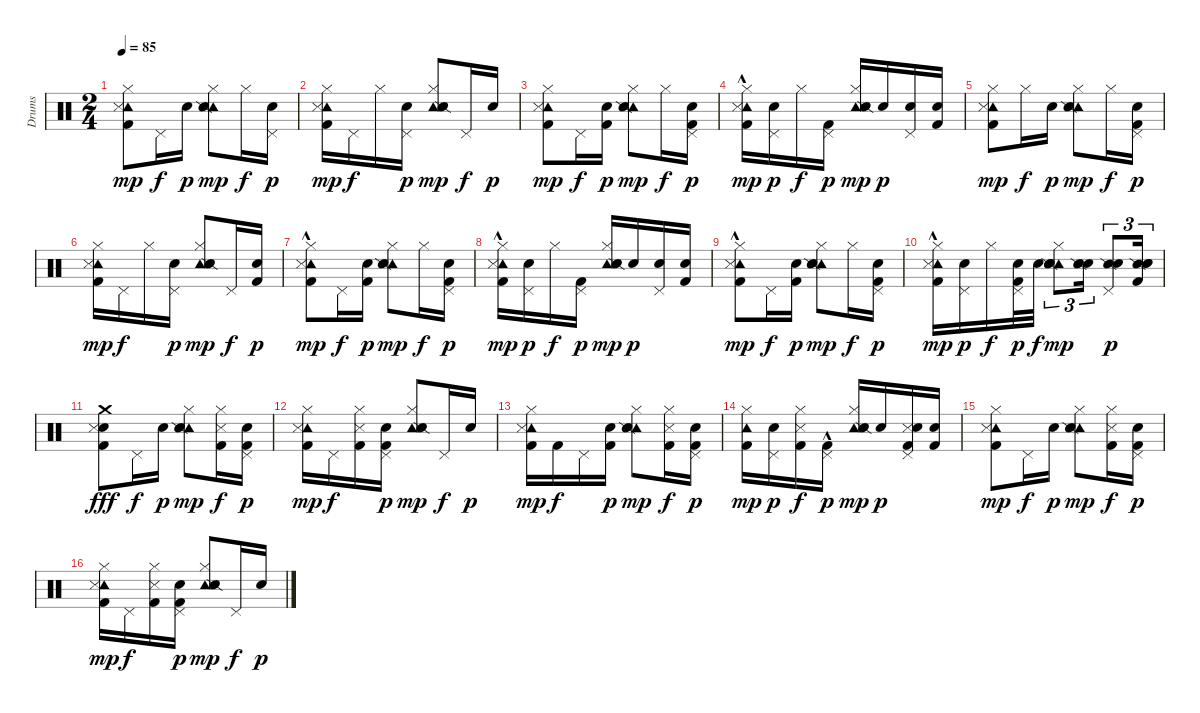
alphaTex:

\track ("Drums" "Drums") {instrument percussion}
\staff {score}
\articulation defaults
\ts (2 4)
\tempo 85
\clef neutral
\ks c
("Tambourine (hit)" "Metronome (hit)" "Kick (hit) 2" "Hi-Hat (closed)").8{dy mp} "Pedal Hi-Hat (hit)".16{dy f} "Electric Snare (hit)".16{dy p} ("Tambourine (hit)" "Snare (hit) 2" "Hi-Hat (closed)" "Snare (side stick) 2").8{dy mp} "Hi-Hat (closed)".16{dy f} ("Electric Snare (hit)" "Pedal Hi-Hat (hit)").16{dy p} |
("Tambourine (hit)" "Metronome (hit)" "Kick (hit) 2" "Hi-Hat (closed)").16{dy mp} "Pedal Hi-Hat (hit)".16{dy f} "Hi-Hat (closed)".16 ("Electric Snare (hit)" "Pedal Hi-Hat (hit)").16{dy p} ("Tambourine (hit)" "Snare (side stick) 2" "Snare (hit) 2" "Hi-Hat (closed)").8{dy mp} "Pedal Hi-Hat (hit)".16{dy f} "Electric Snare (hit)".16{dy p} |
("Tambourine (hit)" "Metronome (hit)" "Kick (hit) 2" "Hi-Hat (closed)").8{dy mp} "Pedal Hi-Hat (hit)".16{dy f} ("Electric Snare (hit)" "Kick (hit) 2").16{dy p} ("Tambourine (hit)" "Snare (hit) 2" "Snare (side stick) 2" "Hi-Hat (closed)").8{dy mp} "Hi-Hat (closed)".16{dy f} ("Electric Snare (hit)" "Kick (hit) 2" "Pedal Hi-Hat (hit)").16{dy p} |
("Tambourine (hit)" "Metronome (hit)" "Kick (hit) 2"{hac} "Hi-Hat (closed)").16{dy mp} ("Snare (hit) 2" "Pedal Hi-Hat (hit)").16{dy p} "Hi-Hat (closed)".16{dy f} ("Kick (hit) 2" "Pedal Hi-Hat (hit)").16{dy p} ("Tambourine (hit)" "Snare (hit) 2" "Snare (side stick) 2" "Hi-Hat (closed)").16{dy mp} "Electric Snare (hit)".16{dy p} ("Electric Snare (hit)" "Pedal Hi-Hat (hit)").16 ("Kick (hit) 2" "Electric Snare (hit)").16 |
("Tambourine (hit)" "Metronome (hit)" "Kick (hit) 2" "Hi-Hat (closed)").8{dy mp} "Hi-Hat (closed)".16{dy f} "Electric Snare (hit)".16{dy p} ("Tambourine (hit)" "Snare (hit) 2" "Hi-Hat (closed)" "Snare (side stick) 2").8{dy mp} "Hi-Hat (closed)".16{dy f} ("Kick (hit) 2" "Electric Snare (hit)" "Pedal Hi-Hat (hit)").16{dy p} |
("Tambourine (hit)" "Metronome (hit)" "Kick (hit) 2" "Hi-Hat (closed)").16{dy mp} "Pedal Hi-Hat (hit)".16{dy f} "Hi-Hat (closed)".16 ("Electric Snare (hit)" "Pedal Hi-Hat (hit)").16{dy p} ("Tambourine (hit)" "Snare (side stick) 2" "Snare (hit) 2" "Hi-Hat (closed)").8{dy mp} "Pedal Hi-Hat (hit)".16{dy f} ("Kick (hit) 2" "Electric Snare (hit)").16{dy p} |
("Tambourine (hit)" "Metronome (hit)" "Kick (hit) 2"{hac} "Hi-Hat (closed)").8{dy mp} "Pedal Hi-Hat (hit)".16{dy f} ("Electric Snare (hit)" "Kick (hit) 2").16{dy p} ("Tambourine (hit)" "Snare (hit) 2" "Snare (side stick) 2" "Hi-Hat (closed)").8{dy mp} "Hi-Hat (closed)".16{dy f} ("Electric Snare (hit)" "Kick (hit) 2" "Pedal Hi-Hat (hit)").16{dy p} |
("Tambourine (hit)" "Metronome (hit)" "Kick (hit) 2"{hac} "Hi-Hat (closed)").16{dy mp} ("Snare (hit) 2" "Pedal Hi-Hat (hit)").16{dy p} "Hi-Hat (closed)".16{dy f} ("Kick (hit) 2" "Pedal Hi-Hat (hit)").16{dy p} ("Tambourine (hit)" "Snare (hit) 2" "Snare (side stick) 2" "Hi-Hat (closed)").16{dy mp} "Electric Snare (hit)".16{dy p} ("Electric Snare (hit)" "Pedal Hi-Hat (hit)").16 ("Kick (hit) 2" "Electric Snare (hit)").16 |
("Tambourine (hit)" "Metronome (hit)" "Kick (hit) 2"{hac} "Hi-Hat (closed)").8{dy mp} "Pedal Hi-Hat (hit)".16{dy f} ("Kick (hit) 2" "Electric Snare (hit)").16{dy p} ("Tambourine (hit)" "Snare (hit) 2" "Snare (side stick) 2" "Hi-Hat (closed)").8{dy mp} "Hi-Hat (closed)".16{dy f} ("Electric Snare (hit)" "Kick (hit) 2" "Pedal Hi-Hat (hit)").16{dy p} |
("Tambourine (hit)" "Metronome (hit)" "Kick (hit) 2"{hac} "Hi-Hat (closed)").16{dy mp} ("Snare (hit) 2" "Pedal Hi-Hat (hit)").16{dy p} "Hi-Hat (closed)".16{dy f} ("Snare (hit) 2" "Kick (hit) 2" "Pedal Hi-Hat (hit)").32{dy p} "Electric Snare (hit)".32{dy f} ("Tambourine (hit)" "Snare (hit) 2" "Snare (side stick) 2" "Hi-Hat (closed)" "Electric Snare (hit)").8{tu (3 2) dy mp} ("Snare (hit) 2" "Electric Snare (hit)" "Snare (side stick) 2").16{tu (3 2)} ("Snare (side stick) 2" "Electric Snare (hit)" "Pedal Hi-Hat (hit)").8{tu (3 2) dy p} ("Snare (side stick) 2" "Snare (hit) 2" "Kick (hit) 2" "Electric Snare (hit)").16{tu (3 2)} |
("Snare (hit)" "Crash medium (hit)" "Metronome (hit)" "Kick (hit) 2").8{dy fff} "Pedal Hi-Hat (hit)".16{dy f} "Electric Snare (hit)".16{dy p} ("Tambourine (hit)" "Snare (hit) 2" "Hi-Hat (closed)" "Snare (side stick) 2").8{dy mp} ("Metronome (hit)" "Kick (hit) 2" "Hi-Hat (closed)").16{dy f} ("Kick (hit) 2" "Electric Snare (hit)" "Pedal Hi-Hat (hit)").16{dy p} |
("Tambourine (hit)" "Metronome (hit)" "Kick (hit) 2" "Hi-Hat (closed)").16{dy mp} "Pedal Hi-Hat (hit)".16{dy f} ("Metronome (hit)" "Kick (hit) 2" "Hi-Hat (closed)").16 ("Kick (hit) 2" "Electric Snare (hit)" "Pedal Hi-Hat (hit)").16{dy p} ("Tambourine (hit)" "Snare (side stick) 2" "Snare (hit) 2" "Hi-Hat (closed)").8{dy mp} "Pedal Hi-Hat (hit)".16{dy f} "Electric Snare (hit)".16{dy p} |
("Tambourine (hit)" "Metronome (hit)" "Kick (hit) 2" "Hi-Hat (closed)").16{dy mp} "Kick (hit) 2".16{dy f} "Pedal Hi-Hat (hit)".16 ("Electric Snare (hit)" "Kick (hit) 2").16{dy p} ("Tambourine (hit)" "Snare (hit) 2" "Snare (side stick) 2" "Hi-Hat (closed)").8{dy mp} ("Metronome (hit)" "Kick (hit) 2" "Hi-Hat (closed)").16{dy f} ("Kick (hit) 2" "Electric Snare (hit)" "Pedal Hi-Hat (hit)").16{dy p} |
("Kick (hit) 2" "Tambourine (hit)" "Hi-Hat (closed)").16{dy mp} ("Snare (hit) 2" "Pedal Hi-Hat (hit)").16{dy p} ("Metronome (hit)" "Kick (hit) 2" "Hi-Hat (closed)").16{dy f} ("Kick (hit) 2"{hac} "Pedal Hi-Hat (hit)").16{dy p} ("Tambourine (hit)" "Snare (hit) 2" "Snare (side stick) 2" "Hi-Hat (closed)").16{dy mp} "Electric Snare (hit)".16{dy p} ("Metronome (hit)" "Kick (hit) 2" "Electric Snare (hit)" "Pedal Hi-Hat (hit)").16 ("Kick (hit) 2" "Electric Snare (hit)").16 |
("Tambourine (hit)" "Metronome (hit)" "Kick (hit) 2" "Hi-Hat (closed)").8{dy mp} "Pedal Hi-Hat (hit)".16{dy f} "Electric Snare (hit)".16{dy p} ("Tambourine (hit)" "Snare (hit) 2" "Hi-Hat (closed)" "Snare (side stick) 2").8{dy mp} ("Hi-Hat (closed)" "Metronome (hit)" "Kick (hit) 2").16{dy f} ("Electric Snare (hit)" "Pedal Hi-Hat (hit)" "Kick (hit) 2").16{dy p} |
("Tambourine (hit)" "Metronome (hit)" "Kick (hit) 2" "Hi-Hat (closed)").16{dy mp} "Pedal Hi-Hat (hit)".16{dy f} ("Hi-Hat (closed)" "Metronome (hit)" "Kick (hit) 2").16 ("Electric Snare (hit)" "Pedal Hi-Hat (hit)" "Kick (hit) 2").16{dy p} ("Tambourine (hit)" "Snare (side stick) 2" "Snare (hit) 2" "Hi-Hat (closed)").8{dy mp} "Pedal Hi-Hat (hit)".16{dy f} "Electric Snare (hit)".16{dy p}
